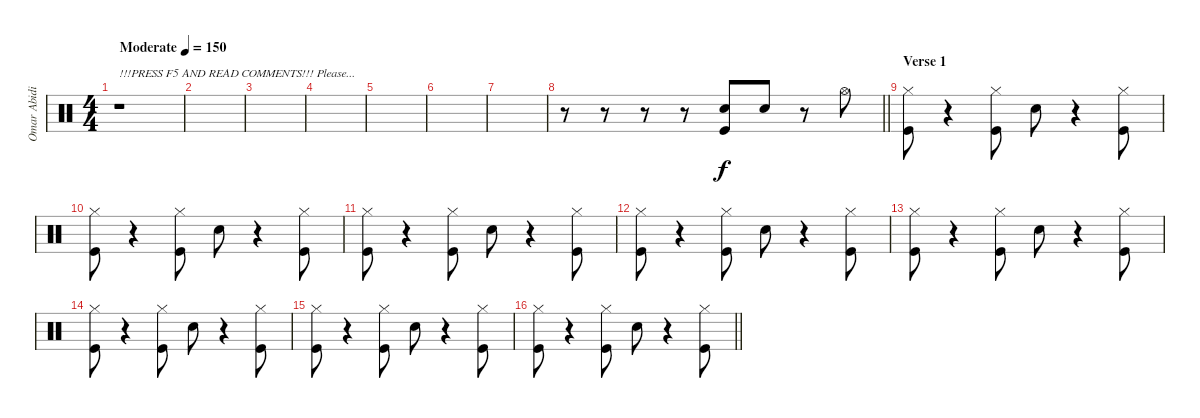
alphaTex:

\track ("Omar Abidi" "Omar Abidi") {instrument percussion}
\staff {score}
\articulation defaults
\ts (4 4)
\tempo (150 "Moderate")
\clef neutral
\ks c
r.1{txt "!!!PRESS F5 AND READ COMMENTS!!! Please..." dy f} |
|
|
|
|
|
|
\barLineRight lightlight
r.8 r.8 r.8 r.8 ("Snare (hit) 2" "Kick (hit)").8 "Snare (hit) 2".8 r.8 "Hi-Hat (open)".8 |
\section ("" "Verse 1")
("Hi-Hat (closed)" "Kick (hit)").8 r.4 ("Hi-Hat (closed)" "Kick (hit)").8 "Snare (hit) 2".8 r.4 ("Hi-Hat (closed)" "Kick (hit)").8 |
("Hi-Hat (closed)" "Kick (hit)").8 r.4 ("Hi-Hat (closed)" "Kick (hit)").8 "Snare (hit) 2".8 r.4 ("Hi-Hat (closed)" "Kick (hit)").8 |
("Hi-Hat (closed)" "Kick (hit)").8 r.4 ("Hi-Hat (closed)" "Kick (hit)").8 "Snare (hit) 2".8 r.4 ("Hi-Hat (closed)" "Kick (hit)").8 |
("Hi-Hat (closed)" "Kick (hit)").8 r.4 ("Hi-Hat (closed)" "Kick (hit)").8 "Snare (hit) 2".8 r.4 ("Hi-Hat (closed)" "Kick (hit)").8 |
("Hi-Hat (closed)" "Kick (hit)").8 r.4 ("Hi-Hat (closed)" "Kick (hit)").8 "Snare (hit) 2".8 r.4 ("Hi-Hat (closed)" "Kick (hit)").8 |
("Hi-Hat (closed)" "Kick (hit)").8 r.4 ("Hi-Hat (closed)" "Kick (hit)").8 "Snare (hit) 2".8 r.4 ("Hi-Hat (closed)" "Kick (hit)").8 |
("Hi-Hat (closed)" "Kick (hit)").8 r.4 ("Hi-Hat (closed)" "Kick (hit)").8 "Snare (hit) 2".8 r.4 ("Hi-Hat (closed)" "Kick (hit)").8 |
\barLineRight lightlight
("Hi-Hat (closed)" "Kick (hit)").8 r.4 ("Hi-Hat (closed)" "Kick (hit)").8 "Snare (hit) 2".8 r.4 ("Hi-Hat (closed)" "Kick (hit)").8
